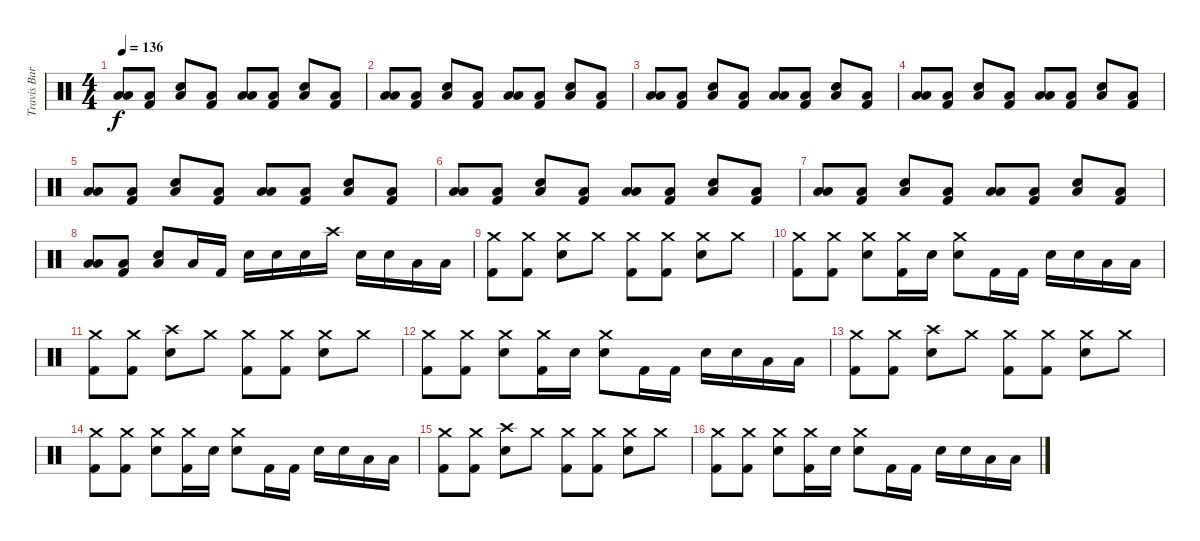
\track ("Travis Barker" "Travis Bar") {instrument percussion}
\staff {score}
\articulation defaults
\ts (4 4)
\tempo 136
\clef neutral
\ks c
("Low Tom (hit)" "Low Floor Tom (hit)").8{dy f} ("Low Floor Tom (hit)" "Kick (hit) 2").8 ("Snare (hit) 2" "Low Floor Tom (hit)").8 ("Low Floor Tom (hit)" "Kick (hit) 2").8 ("Low Tom (hit)" "Low Floor Tom (hit)").8 ("Low Floor Tom (hit)" "Kick (hit) 2").8 ("Snare (hit) 2" "Low Floor Tom (hit)").8 ("Kick (hit) 2" "Low Floor Tom (hit)").8 |
("Low Tom (hit)" "Low Floor Tom (hit)").8 ("Low Floor Tom (hit)" "Kick (hit) 2").8 ("Snare (hit) 2" "Low Floor Tom (hit)").8 ("Low Floor Tom (hit)" "Kick (hit) 2").8 ("Low Tom (hit)" "Low Floor Tom (hit)").8 ("Low Floor Tom (hit)" "Kick (hit) 2").8 ("Snare (hit) 2" "Low Floor Tom (hit)").8 ("Kick (hit) 2" "Low Floor Tom (hit)").8 |
("Low Tom (hit)" "Low Floor Tom (hit)").8 ("Low Floor Tom (hit)" "Kick (hit) 2").8 ("Snare (hit) 2" "Low Floor Tom (hit)").8 ("Low Floor Tom (hit)" "Kick (hit) 2").8 ("Low Tom (hit)" "Low Floor Tom (hit)").8 ("Low Floor Tom (hit)" "Kick (hit) 2").8 ("Snare (hit) 2" "Low Floor Tom (hit)").8 ("Kick (hit) 2" "Low Floor Tom (hit)").8 |
("Low Tom (hit)" "Low Floor Tom (hit)").8 ("Low Floor Tom (hit)" "Kick (hit) 2").8 ("Snare (hit) 2" "Low Floor Tom (hit)").8 ("Low Floor Tom (hit)" "Kick (hit) 2").8 ("Low Tom (hit)" "Low Floor Tom (hit)").8 ("Low Floor Tom (hit)" "Kick (hit) 2").8 ("Snare (hit) 2" "Low Floor Tom (hit)").8 ("Kick (hit) 2" "Low Floor Tom (hit)").8 |
("Low Tom (hit)" "Low Floor Tom (hit)").8 ("Low Floor Tom (hit)" "Kick (hit) 2").8 ("Snare (hit) 2" "Low Floor Tom (hit)").8 ("Low Floor Tom (hit)" "Kick (hit) 2").8 ("Low Tom (hit)" "Low Floor Tom (hit)").8 ("Low Floor Tom (hit)" "Kick (hit) 2").8 ("Snare (hit) 2" "Low Floor Tom (hit)").8 ("Kick (hit) 2" "Low Floor Tom (hit)").8 |
("Low Tom (hit)" "Low Floor Tom (hit)").8 ("Low Floor Tom (hit)" "Kick (hit) 2").8 ("Snare (hit) 2" "Low Floor Tom (hit)").8 ("Low Floor Tom (hit)" "Kick (hit) 2").8 ("Low Tom (hit)" "Low Floor Tom (hit)").8 ("Low Floor Tom (hit)" "Kick (hit) 2").8 ("Snare (hit) 2" "Low Floor Tom (hit)").8 ("Kick (hit) 2" "Low Floor Tom (hit)").8 |
("Low Tom (hit)" "Low Floor Tom (hit)").8 ("Low Floor Tom (hit)" "Kick (hit) 2").8 ("Snare (hit) 2" "Low Floor Tom (hit)").8 ("Low Floor Tom (hit)" "Kick (hit) 2").8 ("Low Tom (hit)" "Low Floor Tom (hit)").8 ("Low Floor Tom (hit)" "Kick (hit) 2").8 ("Snare (hit) 2" "Low Floor Tom (hit)").8 ("Kick (hit) 2" "Low Floor Tom (hit)").8 |
("Low Tom (hit)" "Low Floor Tom (hit)").8 ("Low Floor Tom (hit)" "Kick (hit) 2").8 ("Snare (hit) 2" "Low Floor Tom (hit)").8 "Low Floor Tom (hit)".16 "Kick (hit) 2".16 "Snare (hit) 2".16 "Snare (hit) 2".16 "Snare (hit) 2".16 "Crash high (hit)".16 "Snare (hit) 2".16 "Snare (hit) 2".16 "Low Tom (hit)".16 "Low Tom (hit)".16 |
("Crash medium (hit)" "Kick (hit) 2").8 ("Crash medium (hit)" "Kick (hit) 2").8 ("Crash medium (hit)" "Snare (hit) 2").8 "Crash medium (hit)".8 ("Crash medium (hit)" "Kick (hit) 2").8 ("Crash medium (hit)" "Kick (hit) 2").8 ("Crash medium (hit)" "Snare (hit) 2").8 "Crash medium (hit)".8 |
("Crash medium (hit)" "Kick (hit) 2").8 ("Crash medium (hit)" "Kick (hit) 2").8 ("Crash medium (hit)" "Snare (hit) 2").8 ("Crash medium (hit)" "Kick (hit) 2").16 "Snare (hit) 2".16 ("Crash medium (hit)" "Snare (hit) 2").8 "Kick (hit) 2".16 "Kick (hit) 2".16 "Snare (hit) 2".16 "Snare (hit) 2".16 "Low Tom (hit)".16 "Low Tom (hit)".16 |
("Crash medium (hit)" "Kick (hit) 2").8 ("Crash medium (hit)" "Kick (hit) 2").8 ("Crash high (hit)" "Snare (hit) 2").8 "Crash medium (hit)".8 ("Crash medium (hit)" "Kick (hit) 2").8 ("Crash medium (hit)" "Kick (hit) 2").8 ("Crash medium (hit)" "Snare (hit) 2").8 "Crash medium (hit)".8 |
("Crash medium (hit)" "Kick (hit) 2").8 ("Crash medium (hit)" "Kick (hit) 2").8 ("Crash medium (hit)" "Snare (hit) 2").8 ("Crash medium (hit)" "Kick (hit) 2").16 "Snare (hit) 2".16 ("Crash medium (hit)" "Snare (hit) 2").8 "Kick (hit) 2".16 "Kick (hit) 2".16 "Snare (hit) 2".16 "Snare (hit) 2".16 "Low Tom (hit)".16 "Low Tom (hit)".16 |
("Crash medium (hit)" "Kick (hit) 2").8 ("Crash medium (hit)" "Kick (hit) 2").8 ("Crash high (hit)" "Snare (hit) 2").8 "Crash medium (hit)".8 ("Crash medium (hit)" "Kick (hit) 2").8 ("Crash medium (hit)" "Kick (hit) 2").8 ("Crash medium (hit)" "Snare (hit) 2").8 "Crash medium (hit)".8 |
("Crash medium (hit)" "Kick (hit) 2").8 ("Crash medium (hit)" "Kick (hit) 2").8 ("Crash medium (hit)" "Snare (hit) 2").8 ("Crash medium (hit)" "Kick (hit) 2").16 "Snare (hit) 2".16 ("Crash medium (hit)" "Snare (hit) 2").8 "Kick (hit) 2".16 "Kick (hit) 2".16 "Snare (hit) 2".16 "Snare (hit) 2".16 "Low Tom (hit)".16 "Low Tom (hit)".16 |
("Crash medium (hit)" "Kick (hit) 2").8 ("Crash medium (hit)" "Kick (hit) 2").8 ("Crash high (hit)" "Snare (hit) 2").8 "Crash medium (hit)".8 ("Crash medium (hit)" "Kick (hit) 2").8 ("Crash medium (hit)" "Kick (hit) 2").8 ("Crash medium (hit)" "Snare (hit) 2").8 "Crash medium (hit)".8 |
("Crash medium (hit)" "Kick (hit) 2").8 ("Crash medium (hit)" "Kick (hit) 2").8 ("Crash medium (hit)" "Snare (hit) 2").8 ("Crash medium (hit)" "Kick (hit) 2").16 "Snare (hit) 2".16 ("Crash medium (hit)" "Snare (hit) 2").8 "Kick (hit) 2".16 "Kick (hit) 2".16 "Snare (hit) 2".16 "Snare (hit) 2".16 "Low Tom (hit)".16 "Low Tom (hit)".16
